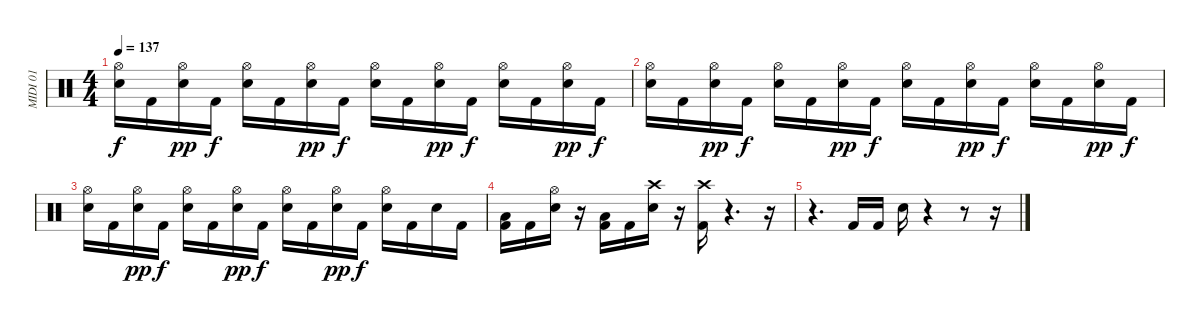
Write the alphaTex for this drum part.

\track ("MIDI 01" "MIDI 01") {instrument percussion}
\staff {score}
\articulation defaults
\ts (4 4)
\tempo 137
\clef neutral
\ks c
("Hi-Hat (open)" "Snare (hit) 2").16{dy f} "Kick (hit) 2".16 ("Hi-Hat (open)" "Snare (hit) 2").16{dy pp} "Kick (hit) 2".16{dy f} ("Hi-Hat (open)" "Snare (hit) 2").16 "Kick (hit) 2".16 ("Hi-Hat (open)" "Snare (hit) 2").16{dy pp} "Kick (hit) 2".16{dy f} ("Hi-Hat (open)" "Snare (hit) 2").16 "Kick (hit) 2".16 ("Hi-Hat (open)" "Snare (hit) 2").16{dy pp} "Kick (hit) 2".16{dy f} ("Hi-Hat (open)" "Snare (hit) 2").16 "Kick (hit) 2".16 ("Hi-Hat (open)" "Snare (hit) 2").16{dy pp} "Kick (hit) 2".16{dy f} |
("Hi-Hat (open)" "Snare (hit) 2").16 "Kick (hit) 2".16 ("Hi-Hat (open)" "Snare (hit) 2").16{dy pp} "Kick (hit) 2".16{dy f} ("Hi-Hat (open)" "Snare (hit) 2").16 "Kick (hit) 2".16 ("Hi-Hat (open)" "Snare (hit) 2").16{dy pp} "Kick (hit) 2".16{dy f} ("Hi-Hat (open)" "Snare (hit) 2").16 "Kick (hit) 2".16 ("Hi-Hat (open)" "Snare (hit) 2").16{dy pp} "Kick (hit) 2".16{dy f} ("Hi-Hat (open)" "Snare (hit) 2").16 "Kick (hit) 2".16 ("Hi-Hat (open)" "Snare (hit) 2").16{dy pp} "Kick (hit) 2".16{dy f} |
("Hi-Hat (open)" "Snare (hit) 2").16 "Kick (hit) 2".16 ("Hi-Hat (open)" "Snare (hit) 2").16{dy pp} "Kick (hit) 2".16{dy f} ("Hi-Hat (open)" "Snare (hit) 2").16 "Kick (hit) 2".16 ("Hi-Hat (open)" "Snare (hit) 2").16{dy pp} "Kick (hit) 2".16{dy f} ("Hi-Hat (open)" "Snare (hit) 2").16 "Kick (hit) 2".16 ("Hi-Hat (open)" "Snare (hit) 2").16{dy pp} "Kick (hit) 2".16{dy f} ("Hi-Hat (open)" "Snare (hit) 2").16 "Kick (hit) 2".16 "Snare (hit) 2".16 "Kick (hit) 2".16 |
("Kick (hit) 2" "Low Tom (hit)").16 "Kick (hit) 2".16 ("Snare (hit) 2" "Hi-Hat (open)").16 r.16 ("Kick (hit) 2" "Low Tom (hit)").16 "Kick (hit) 2".16 ("Snare (hit) 2" "Crash high (hit)").16 r.16 ("Kick (hit) 2" "Crash high (hit)").16 r.4{d} r.16 |
r.4{d} "Kick (hit) 2".16 "Kick (hit) 2".16 "Snare (hit) 2".16 r.4 r.8 r.16
